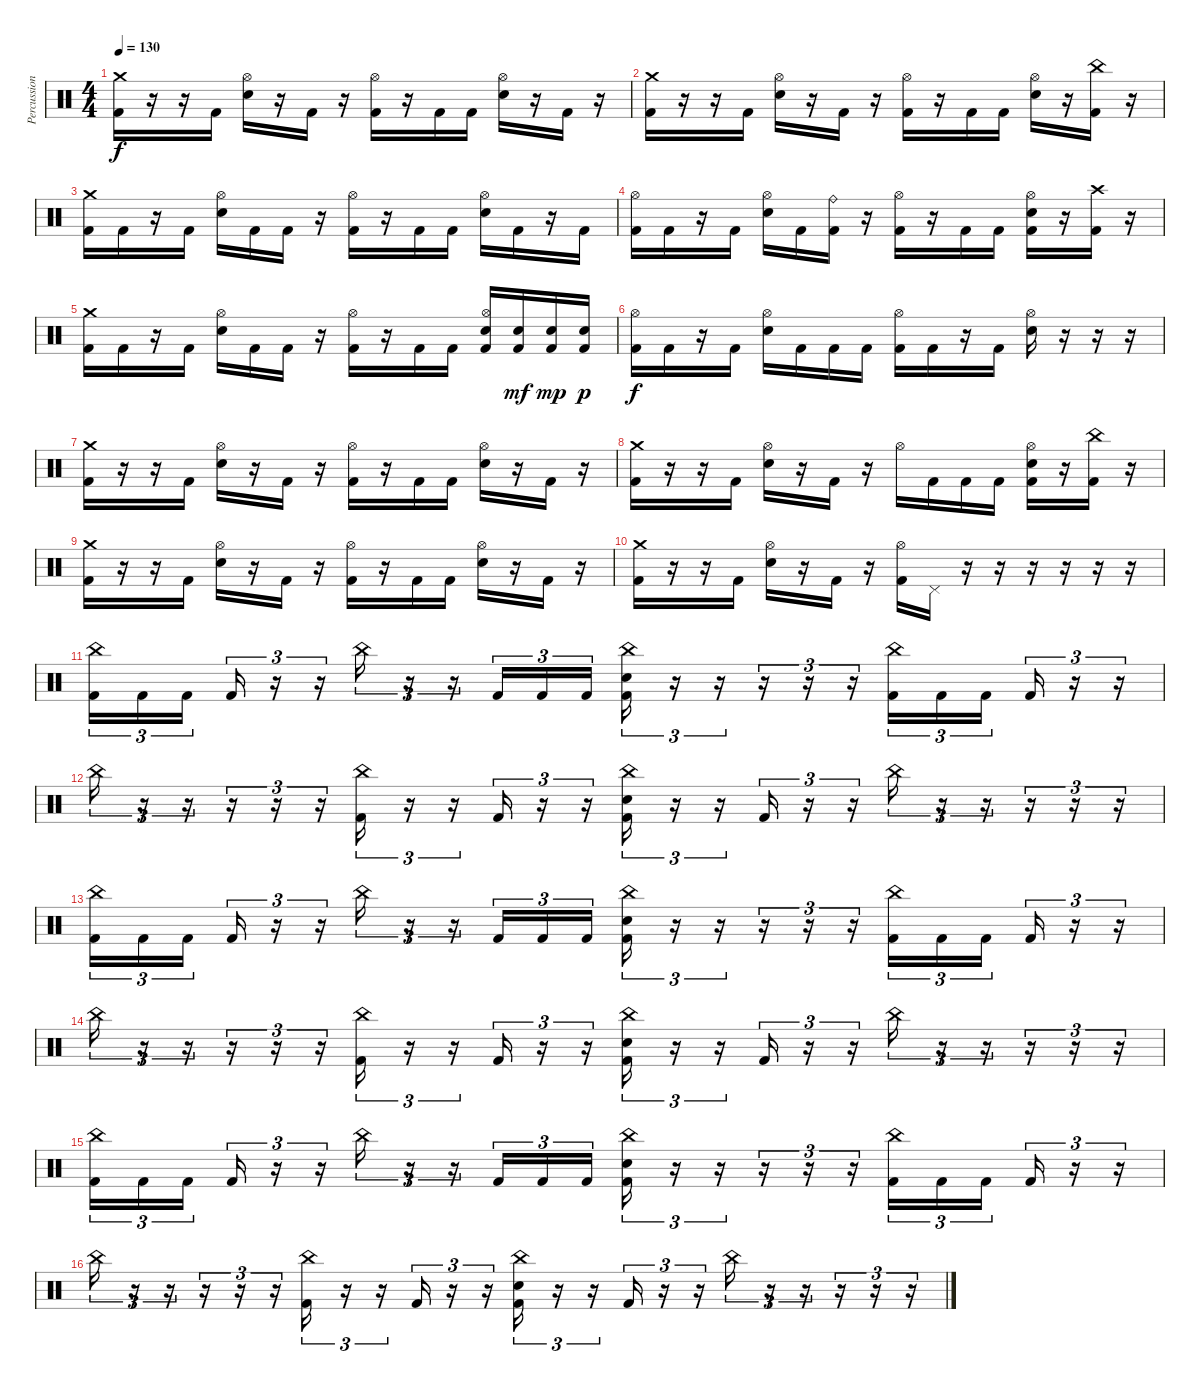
\track ("Percussion" "Percussion") {instrument percussion}
\staff {score}
\articulation defaults
\ts (4 4)
\tempo 130
\clef neutral
\ks c
("Crash medium (hit)" "Kick (hit) 2").16{dy f} r.16 r.16 "Kick (hit) 2".16 ("Hi-Hat (open)" "Electric Snare (hit)").16 r.16 "Kick (hit) 2".16 r.16 ("Hi-Hat (open)" "Kick (hit) 2").16 r.16 "Kick (hit) 2".16 "Kick (hit) 2".16 ("Hi-Hat (open)" "Electric Snare (hit)").16 r.16 "Kick (hit) 2".16 r.16 |
("Crash medium (hit)" "Kick (hit) 2").16 r.16 r.16 "Kick (hit) 2".16 ("Hi-Hat (open)" "Electric Snare (hit)").16 r.16 "Kick (hit) 2".16 r.16 ("Hi-Hat (open)" "Kick (hit) 2").16 r.16 "Kick (hit) 2".16 "Kick (hit) 2".16 ("Hi-Hat (open)" "Electric Snare (hit)").16 r.16 ("China (hit)" "Kick (hit) 2").16 r.16 |
("Crash medium (hit)" "Kick (hit) 2").16 "Kick (hit) 2".16 r.16 "Kick (hit) 2".16 ("Hi-Hat (open)" "Electric Snare (hit)").16 "Kick (hit) 2".16 "Kick (hit) 2".16 r.16 ("Hi-Hat (open)" "Kick (hit) 2").16 r.16 "Kick (hit) 2".16 "Kick (hit) 2".16 ("Hi-Hat (open)" "Electric Snare (hit)").16 "Kick (hit) 2".16 r.16 "Kick (hit) 2".16 |
("Hi-Hat (open)" "Kick (hit) 2").16 "Kick (hit) 2".16 r.16 "Kick (hit) 2".16 ("Hi-Hat (open)" "Electric Snare (hit)").16 "Kick (hit) 2".16 ("Ride (bell)" "Kick (hit) 2").16 r.16 ("Hi-Hat (open)" "Kick (hit) 2").16 r.16 "Kick (hit) 2".16 "Kick (hit) 2".16 ("Hi-Hat (open)" "Electric Snare (hit)" "Kick (hit) 2").16 r.16 ("Crash high (hit)" "Kick (hit) 2").16 r.16 |
("Crash medium (hit)" "Kick (hit) 2").16 "Kick (hit) 2".16 r.16 "Kick (hit) 2".16 ("Hi-Hat (open)" "Electric Snare (hit)").16 "Kick (hit) 2".16 "Kick (hit) 2".16 r.16 ("Hi-Hat (open)" "Kick (hit) 2").16 r.16 "Kick (hit) 2".16 "Kick (hit) 2".16 ("Hi-Hat (open)" "Electric Snare (hit)" "Kick (hit) 2").16 ("Electric Snare (hit)" "Kick (hit) 2").16{dy mf} ("Electric Snare (hit)" "Kick (hit) 2").16{dy mp} ("Electric Snare (hit)" "Kick (hit) 2").16{dy p} |
("Hi-Hat (open)" "Kick (hit) 2").16{dy f} "Kick (hit) 2".16 r.16 "Kick (hit) 2".16 ("Hi-Hat (open)" "Electric Snare (hit)").16 "Kick (hit) 2".16 "Kick (hit) 2".16 "Kick (hit) 2".16 ("Hi-Hat (open)" "Kick (hit) 2").16 "Kick (hit) 2".16 r.16 "Kick (hit) 2".16 ("Hi-Hat (open)" "Electric Snare (hit)").16 r.16 r.16 r.16 |
("Crash medium (hit)" "Kick (hit) 2").16 r.16 r.16 "Kick (hit) 2".16 ("Hi-Hat (open)" "Electric Snare (hit)").16 r.16 "Kick (hit) 2".16 r.16 ("Hi-Hat (open)" "Kick (hit) 2").16 r.16 "Kick (hit) 2".16 "Kick (hit) 2".16 ("Hi-Hat (open)" "Electric Snare (hit)").16 r.16 "Kick (hit) 2".16 r.16 |
("Crash medium (hit)" "Kick (hit) 2").16 r.16 r.16 "Kick (hit) 2".16 ("Hi-Hat (open)" "Electric Snare (hit)").16 r.16 "Kick (hit) 2".16 r.16 "Hi-Hat (open)".16 "Kick (hit) 2".16 "Kick (hit) 2".16 "Kick (hit) 2".16 ("Hi-Hat (open)" "Electric Snare (hit)" "Kick (hit) 2").16 r.16 ("China (hit)" "Kick (hit) 2").16 r.16 |
("Crash medium (hit)" "Kick (hit) 2").16 r.16 r.16 "Kick (hit) 2".16 ("Hi-Hat (open)" "Electric Snare (hit)").16 r.16 "Kick (hit) 2".16 r.16 ("Hi-Hat (open)" "Kick (hit) 2").16 r.16 "Kick (hit) 2".16 "Kick (hit) 2".16 ("Hi-Hat (open)" "Electric Snare (hit)").16 r.16 "Kick (hit) 2".16 r.16 |
("Crash medium (hit)" "Kick (hit) 2").16 r.16 r.16 "Kick (hit) 2".16 ("Hi-Hat (open)" "Electric Snare (hit)").16 r.16 "Kick (hit) 2".16 r.16 ("Hi-Hat (open)" "Kick (hit) 2").16 "Pedal Hi-Hat (hit)".16 r.16 r.16 r.16 r.16 r.16 r.16 |
("China (hit)" "Kick (hit) 2").16{tu (3 2)} "Kick (hit) 2".16{tu (3 2)} "Kick (hit) 2".16{tu (3 2)} "Kick (hit) 2".16{tu (3 2)} r.16{tu (3 2)} r.16{tu (3 2)} "China (hit)".16{tu (3 2)} r.16{tu (3 2)} r.16{tu (3 2)} "Kick (hit) 2".16{tu (3 2)} "Kick (hit) 2".16{tu (3 2)} "Kick (hit) 2".16{tu (3 2)} ("China (hit)" "Electric Snare (hit)" "Kick (hit) 2").16{tu (3 2)} r.16{tu (3 2)} r.16{tu (3 2)} r.16{tu (3 2)} r.16{tu (3 2)} r.16{tu (3 2)} ("China (hit)" "Kick (hit) 2").16{tu (3 2)} "Kick (hit) 2".16{tu (3 2)} "Kick (hit) 2".16{tu (3 2)} "Kick (hit) 2".16{tu (3 2)} r.16{tu (3 2)} r.16{tu (3 2)} |
"China (hit)".16{tu (3 2)} r.16{tu (3 2)} r.16{tu (3 2)} r.16{tu (3 2)} r.16{tu (3 2)} r.16{tu (3 2)} ("China (hit)" "Kick (hit) 2").16{tu (3 2)} r.16{tu (3 2)} r.16{tu (3 2)} "Kick (hit) 2".16{tu (3 2)} r.16{tu (3 2)} r.16{tu (3 2)} ("China (hit)" "Electric Snare (hit)" "Kick (hit) 2").16{tu (3 2)} r.16{tu (3 2)} r.16{tu (3 2)} "Kick (hit) 2".16{tu (3 2)} r.16{tu (3 2)} r.16{tu (3 2)} "China (hit)".16{tu (3 2)} r.16{tu (3 2)} r.16{tu (3 2)} r.16{tu (3 2)} r.16{tu (3 2)} r.16{tu (3 2)} |
("China (hit)" "Kick (hit) 2").16{tu (3 2)} "Kick (hit) 2".16{tu (3 2)} "Kick (hit) 2".16{tu (3 2)} "Kick (hit) 2".16{tu (3 2)} r.16{tu (3 2)} r.16{tu (3 2)} "China (hit)".16{tu (3 2)} r.16{tu (3 2)} r.16{tu (3 2)} "Kick (hit) 2".16{tu (3 2)} "Kick (hit) 2".16{tu (3 2)} "Kick (hit) 2".16{tu (3 2)} ("China (hit)" "Electric Snare (hit)" "Kick (hit) 2").16{tu (3 2)} r.16{tu (3 2)} r.16{tu (3 2)} r.16{tu (3 2)} r.16{tu (3 2)} r.16{tu (3 2)} ("China (hit)" "Kick (hit) 2").16{tu (3 2)} "Kick (hit) 2".16{tu (3 2)} "Kick (hit) 2".16{tu (3 2)} "Kick (hit) 2".16{tu (3 2)} r.16{tu (3 2)} r.16{tu (3 2)} |
"China (hit)".16{tu (3 2)} r.16{tu (3 2)} r.16{tu (3 2)} r.16{tu (3 2)} r.16{tu (3 2)} r.16{tu (3 2)} ("China (hit)" "Kick (hit) 2").16{tu (3 2)} r.16{tu (3 2)} r.16{tu (3 2)} "Kick (hit) 2".16{tu (3 2)} r.16{tu (3 2)} r.16{tu (3 2)} ("China (hit)" "Electric Snare (hit)" "Kick (hit) 2").16{tu (3 2)} r.16{tu (3 2)} r.16{tu (3 2)} "Kick (hit) 2".16{tu (3 2)} r.16{tu (3 2)} r.16{tu (3 2)} "China (hit)".16{tu (3 2)} r.16{tu (3 2)} r.16{tu (3 2)} r.16{tu (3 2)} r.16{tu (3 2)} r.16{tu (3 2)} |
("China (hit)" "Kick (hit) 2").16{tu (3 2)} "Kick (hit) 2".16{tu (3 2)} "Kick (hit) 2".16{tu (3 2)} "Kick (hit) 2".16{tu (3 2)} r.16{tu (3 2)} r.16{tu (3 2)} "China (hit)".16{tu (3 2)} r.16{tu (3 2)} r.16{tu (3 2)} "Kick (hit) 2".16{tu (3 2)} "Kick (hit) 2".16{tu (3 2)} "Kick (hit) 2".16{tu (3 2)} ("China (hit)" "Electric Snare (hit)" "Kick (hit) 2").16{tu (3 2)} r.16{tu (3 2)} r.16{tu (3 2)} r.16{tu (3 2)} r.16{tu (3 2)} r.16{tu (3 2)} ("China (hit)" "Kick (hit) 2").16{tu (3 2)} "Kick (hit) 2".16{tu (3 2)} "Kick (hit) 2".16{tu (3 2)} "Kick (hit) 2".16{tu (3 2)} r.16{tu (3 2)} r.16{tu (3 2)} |
"China (hit)".16{tu (3 2)} r.16{tu (3 2)} r.16{tu (3 2)} r.16{tu (3 2)} r.16{tu (3 2)} r.16{tu (3 2)} ("China (hit)" "Kick (hit) 2").16{tu (3 2)} r.16{tu (3 2)} r.16{tu (3 2)} "Kick (hit) 2".16{tu (3 2)} r.16{tu (3 2)} r.16{tu (3 2)} ("China (hit)" "Electric Snare (hit)" "Kick (hit) 2").16{tu (3 2)} r.16{tu (3 2)} r.16{tu (3 2)} "Kick (hit) 2".16{tu (3 2)} r.16{tu (3 2)} r.16{tu (3 2)} "China (hit)".16{tu (3 2)} r.16{tu (3 2)} r.16{tu (3 2)} r.16{tu (3 2)} r.16{tu (3 2)} r.16{tu (3 2)}
